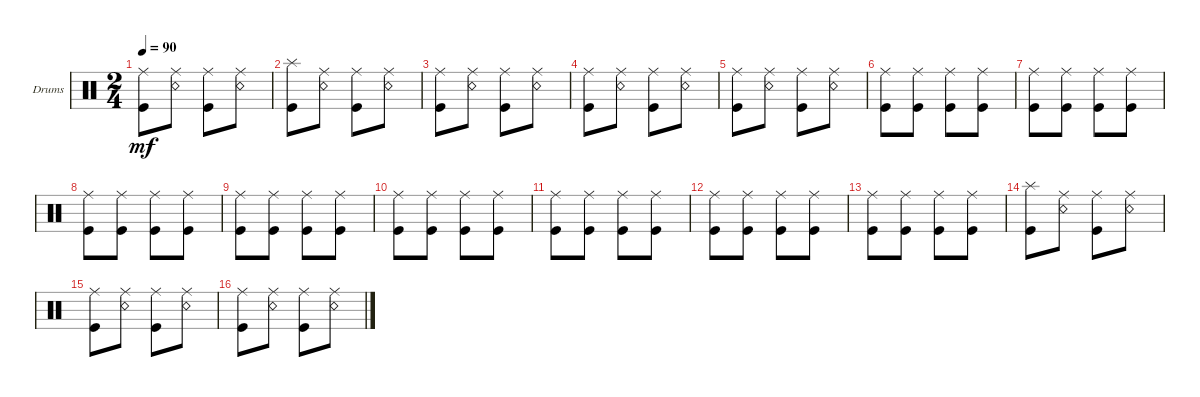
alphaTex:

\defaultSystemsLayout 4
\bracketExtendMode groupsimilarinstruments
\firstSystemTrackNameOrientation horizontal
\otherSystemsTrackNameOrientation horizontal
\track ("Drumkit" "Drums") {instrument percussion}
\staff {score}
\articulation defaults
\ts (2 4)
\tempo 90
\clef neutral
\ks c
("Kick (hit)" "Ride (middle)").8{dy mf} ("Ride (middle)" "Snare (rim shot)").8 ("Ride (middle)" "Kick (hit)").8 ("Ride (middle)" "Snare (rim shot)").8 |
("Kick (hit)" "Splash (hit)").8 ("Ride (middle)" "Snare (rim shot)").8 ("Ride (middle)" "Kick (hit)").8 ("Ride (middle)" "Snare (rim shot)").8 |
("Kick (hit)" "Ride (middle)").8 ("Ride (middle)" "Snare (rim shot)").8 ("Ride (middle)" "Kick (hit)").8 ("Ride (middle)" "Snare (rim shot)").8 |
("Kick (hit)" "Ride (middle)").8 ("Ride (middle)" "Snare (rim shot)").8 ("Ride (middle)" "Kick (hit)").8 ("Ride (middle)" "Snare (rim shot)").8 |
("Kick (hit)" "Ride (middle)").8 ("Ride (middle)" "Snare (rim shot)").8 ("Ride (middle)" "Kick (hit)").8 ("Ride (middle)" "Snare (rim shot)").8 |
("Kick (hit)" "Ride (middle)").8 ("Kick (hit)" "Ride (middle)").8 ("Kick (hit)" "Ride (middle)").8 ("Kick (hit)" "Ride (middle)").8 |
("Kick (hit)" "Ride (middle)").8 ("Kick (hit)" "Ride (middle)").8 ("Kick (hit)" "Ride (middle)").8 ("Kick (hit)" "Ride (middle)").8 |
("Kick (hit)" "Ride (middle)").8 ("Kick (hit)" "Ride (middle)").8 ("Kick (hit)" "Ride (middle)").8 ("Kick (hit)" "Ride (middle)").8 |
("Kick (hit)" "Ride (middle)").8 ("Kick (hit)" "Ride (middle)").8 ("Kick (hit)" "Ride (middle)").8 ("Kick (hit)" "Ride (middle)").8 |
("Kick (hit)" "Ride (middle)").8 ("Kick (hit)" "Ride (middle)").8 ("Kick (hit)" "Ride (middle)").8 ("Kick (hit)" "Ride (middle)").8 |
("Kick (hit)" "Ride (middle)").8 ("Kick (hit)" "Ride (middle)").8 ("Kick (hit)" "Ride (middle)").8 ("Kick (hit)" "Ride (middle)").8 |
("Kick (hit)" "Ride (middle)").8 ("Kick (hit)" "Ride (middle)").8 ("Kick (hit)" "Ride (middle)").8 ("Kick (hit)" "Ride (middle)").8 |
("Kick (hit)" "Ride (middle)").8 ("Kick (hit)" "Ride (middle)").8 ("Kick (hit)" "Ride (middle)").8 ("Kick (hit)" "Ride (middle)").8 |
("Kick (hit)" "Splash (hit)").8 ("Ride (middle)" "Snare (rim shot)").8 ("Ride (middle)" "Kick (hit)").8 ("Ride (middle)" "Snare (rim shot)").8 |
("Kick (hit)" "Ride (middle)").8 ("Ride (middle)" "Snare (rim shot)").8 ("Ride (middle)" "Kick (hit)").8 ("Ride (middle)" "Snare (rim shot)").8 |
("Kick (hit)" "Ride (middle)").8 ("Ride (middle)" "Snare (rim shot)").8 ("Ride (middle)" "Kick (hit)").8 ("Ride (middle)" "Snare (rim shot)").8
